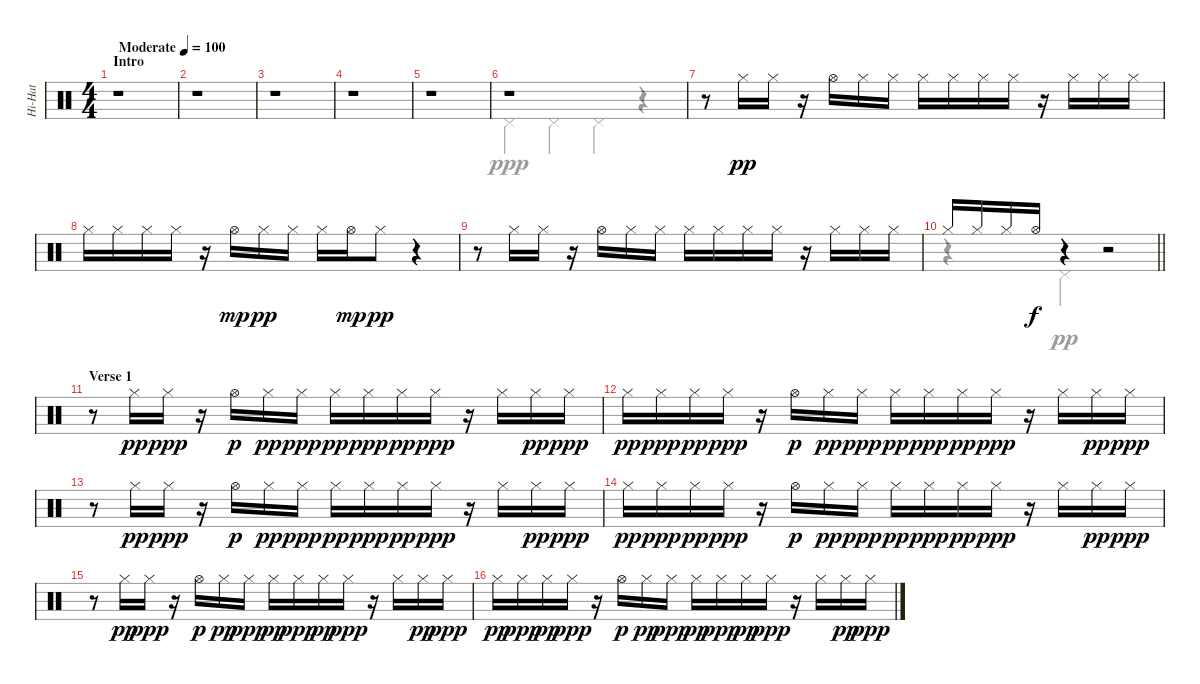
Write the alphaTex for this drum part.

\track ("Hi-Hat" "Hi-Hat") {instrument percussion}
\staff {score}
\articulation defaults
\voice
\ts (4 4)
\section ("" "Intro")
\tempo (100 "Moderate")
\clef neutral
\ks c
r.1{dy pp balance 10} |
r.1 |
r.1 |
r.1 |
r.1 |
r.1 |
r.8 "Hi-Hat (closed)".16 "Hi-Hat (closed)".16 r.16 "Hi-Hat (open)".16 "Hi-Hat (closed)".16 "Hi-Hat (closed)".16 "Hi-Hat (closed)".16 "Hi-Hat (closed)".16 "Hi-Hat (closed)".16 "Hi-Hat (closed)".16 r.16 "Hi-Hat (closed)".16 "Hi-Hat (closed)".16 "Hi-Hat (closed)".16 |
"Hi-Hat (closed)".16 "Hi-Hat (closed)".16 "Hi-Hat (closed)".16 "Hi-Hat (closed)".16 r.16 "Hi-Hat (open)".16{dy mp} "Hi-Hat (closed)".16{dy pp} "Hi-Hat (closed)".16 "Hi-Hat (closed)".16 "Hi-Hat (open)".16{dy mp} "Hi-Hat (closed)".8{dy pp} r.4 |
r.8 "Hi-Hat (closed)".16 "Hi-Hat (closed)".16 r.16 "Hi-Hat (open)".16 "Hi-Hat (closed)".16 "Hi-Hat (closed)".16 "Hi-Hat (closed)".16 "Hi-Hat (closed)".16 "Hi-Hat (closed)".16 "Hi-Hat (closed)".16 r.16 "Hi-Hat (closed)".16 "Hi-Hat (closed)".16 "Hi-Hat (closed)".16 |
\barLineRight lightlight "Hi-Hat (closed)".16 "Hi-Hat (closed)".16 "Hi-Hat (closed)".16 "Hi-Hat (open)".16{dy f}
r.4 r.2 |
\section ("" "Verse 1")
r.8 "Hi-Hat (closed)".16{dy pp} "Hi-Hat (closed)".16{dy ppp} r.16 "Hi-Hat (open)".16{dy p} "Hi-Hat (closed)".16{dy pp} "Hi-Hat (closed)".16{dy ppp} "Hi-Hat (closed)".16{dy pp} "Hi-Hat (closed)".16{dy ppp} "Hi-Hat (closed)".16{dy pp} "Hi-Hat (closed)".16{dy ppp} r.16 "Hi-Hat (closed)".16 "Hi-Hat (closed)".16{dy pp} "Hi-Hat (closed)".16{dy ppp} |
"Hi-Hat (closed)".16{dy pp} "Hi-Hat (closed)".16{dy ppp} "Hi-Hat (closed)".16{dy pp} "Hi-Hat (closed)".16{dy ppp} r.16 "Hi-Hat (open)".16{dy p} "Hi-Hat (closed)".16{dy pp} "Hi-Hat (closed)".16{dy ppp} "Hi-Hat (closed)".16{dy pp} "Hi-Hat (closed)".16{dy ppp} "Hi-Hat (closed)".16{dy pp} "Hi-Hat (closed)".16{dy ppp} r.16 "Hi-Hat (closed)".16 "Hi-Hat (closed)".16{dy pp} "Hi-Hat (closed)".16{dy ppp} |
r.8 "Hi-Hat (closed)".16{dy pp} "Hi-Hat (closed)".16{dy ppp} r.16 "Hi-Hat (open)".16{dy p} "Hi-Hat (closed)".16{dy pp} "Hi-Hat (closed)".16{dy ppp} "Hi-Hat (closed)".16{dy pp} "Hi-Hat (closed)".16{dy ppp} "Hi-Hat (closed)".16{dy pp} "Hi-Hat (closed)".16{dy ppp} r.16 "Hi-Hat (closed)".16 "Hi-Hat (closed)".16{dy pp} "Hi-Hat (closed)".16{dy ppp} |
"Hi-Hat (closed)".16{dy pp} "Hi-Hat (closed)".16{dy ppp} "Hi-Hat (closed)".16{dy pp} "Hi-Hat (closed)".16{dy ppp} r.16 "Hi-Hat (open)".16{dy p} "Hi-Hat (closed)".16{dy pp} "Hi-Hat (closed)".16{dy ppp} "Hi-Hat (closed)".16{dy pp} "Hi-Hat (closed)".16{dy ppp} "Hi-Hat (closed)".16{dy pp} "Hi-Hat (closed)".16{dy ppp} r.16 "Hi-Hat (closed)".16 "Hi-Hat (closed)".16{dy pp} "Hi-Hat (closed)".16{dy ppp} |
r.8 "Hi-Hat (closed)".16{dy pp} "Hi-Hat (closed)".16{dy ppp} r.16 "Hi-Hat (open)".16{dy p} "Hi-Hat (closed)".16{dy pp} "Hi-Hat (closed)".16{dy ppp} "Hi-Hat (closed)".16{dy pp} "Hi-Hat (closed)".16{dy ppp} "Hi-Hat (closed)".16{dy pp} "Hi-Hat (closed)".16{dy ppp} r.16 "Hi-Hat (closed)".16 "Hi-Hat (closed)".16{dy pp} "Hi-Hat (closed)".16{dy ppp} |
"Hi-Hat (closed)".16{dy pp} "Hi-Hat (closed)".16{dy ppp} "Hi-Hat (closed)".16{dy pp} "Hi-Hat (closed)".16{dy ppp} r.16 "Hi-Hat (open)".16{dy p} "Hi-Hat (closed)".16{dy pp} "Hi-Hat (closed)".16{dy ppp} "Hi-Hat (closed)".16{dy pp} "Hi-Hat (closed)".16{dy ppp} "Hi-Hat (closed)".16{dy pp} "Hi-Hat (closed)".16{dy ppp} r.16 "Hi-Hat (closed)".16 "Hi-Hat (closed)".16{dy pp} "Hi-Hat (closed)".16{dy ppp}
\voice
\clef neutral
\ottava regular
\simile none
\ks c
|
|
|
|
|
"Pedal Hi-Hat (hit)".4 "Pedal Hi-Hat (hit)".4 "Pedal Hi-Hat (hit)".4 r.4 |
|
|
|
\barLineRight lightlight
r.4 "Pedal Hi-Hat (hit)".4{dy pp} r.2 |
|
|
|
|
|
